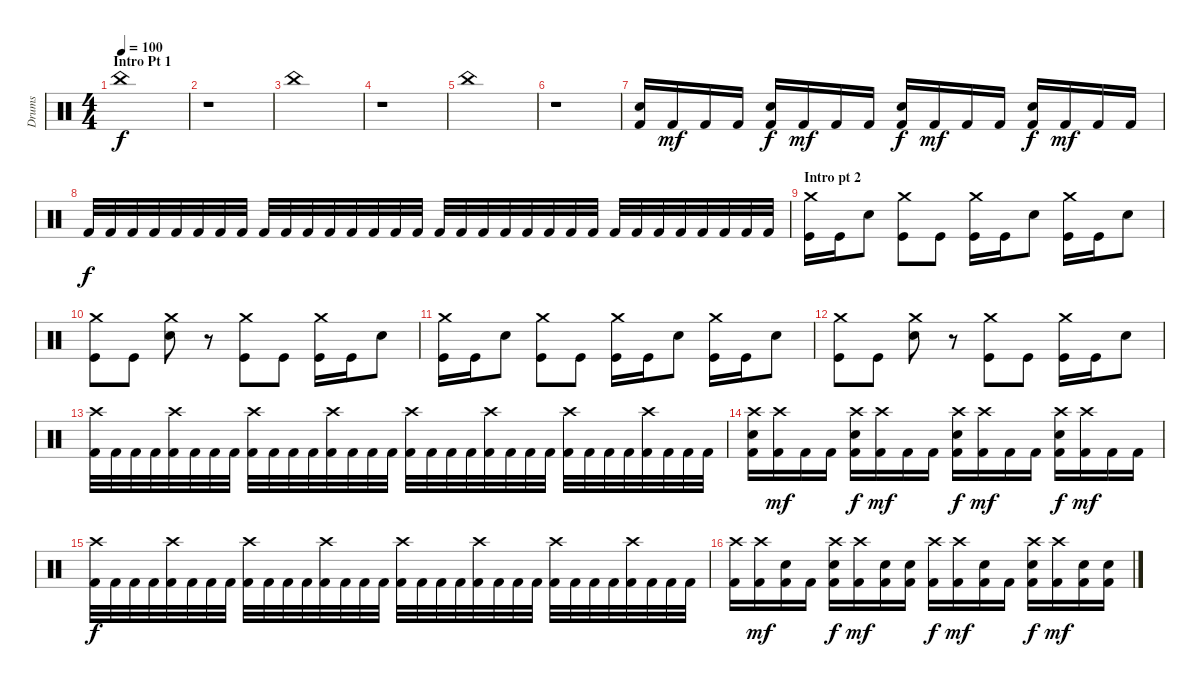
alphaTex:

\track ("Drums" "Drums") {instrument percussion}
\staff {score}
\articulation defaults
\ts (4 4)
\section ("" "Intro Pt 1")
\tempo 100
\clef neutral
\ks c "China (hit)".1{dy f}
|
r.1 |
"China (hit)".1 |
r.1 |
"China (hit)".1 |
r.1 |
("Electric Snare (hit)" "Kick (hit) 2").16 "Kick (hit) 2".16{dy mf} "Kick (hit) 2".16 "Kick (hit) 2".16 ("Electric Snare (hit)" "Kick (hit) 2").16{dy f} "Kick (hit) 2".16{dy mf} "Kick (hit) 2".16 "Kick (hit) 2".16 ("Electric Snare (hit)" "Kick (hit) 2").16{dy f} "Kick (hit) 2".16{dy mf} "Kick (hit) 2".16 "Kick (hit) 2".16 ("Electric Snare (hit)" "Kick (hit) 2").16{dy f} "Kick (hit) 2".16{dy mf} "Kick (hit) 2".16 "Kick (hit) 2".16 |
"Kick (hit) 2".32{dy f} "Kick (hit) 2".32 "Kick (hit) 2".32 "Kick (hit) 2".32 "Kick (hit) 2".32 "Kick (hit) 2".32 "Kick (hit) 2".32 "Kick (hit) 2".32 "Kick (hit) 2".32 "Kick (hit) 2".32 "Kick (hit) 2".32 "Kick (hit) 2".32 "Kick (hit) 2".32 "Kick (hit) 2".32 "Kick (hit) 2".32 "Kick (hit) 2".32 "Kick (hit) 2".32 "Kick (hit) 2".32 "Kick (hit) 2".32 "Kick (hit) 2".32 "Kick (hit) 2".32 "Kick (hit) 2".32 "Kick (hit) 2".32 "Kick (hit) 2".32 "Kick (hit) 2".32 "Kick (hit) 2".32 "Kick (hit) 2".32 "Kick (hit) 2".32 "Kick (hit) 2".32 "Kick (hit) 2".32 "Kick (hit) 2".32 "Kick (hit) 2".32 |
\section ("" "Intro pt 2")
("Crash medium (hit)" "Kick (hit)").16 "Kick (hit)".16 "Electric Snare (hit)".8 ("Crash medium (hit)" "Kick (hit)").8 "Kick (hit)".8 ("Crash medium (hit)" "Kick (hit)").16 "Kick (hit)".16 "Electric Snare (hit)".8 ("Crash medium (hit)" "Kick (hit)").16 "Kick (hit)".16 "Electric Snare (hit)".8 |
("Crash medium (hit)" "Kick (hit)").8 "Kick (hit)".8 ("Crash medium (hit)" "Electric Snare (hit)").8 r.8 ("Crash medium (hit)" "Kick (hit)").8 "Kick (hit)".8 ("Crash medium (hit)" "Kick (hit)").16 "Kick (hit)".16 "Electric Snare (hit)".8 |
("Crash medium (hit)" "Kick (hit)").16 "Kick (hit)".16 "Electric Snare (hit)".8 ("Crash medium (hit)" "Kick (hit)").8 "Kick (hit)".8 ("Crash medium (hit)" "Kick (hit)").16 "Kick (hit)".16 "Electric Snare (hit)".8 ("Crash medium (hit)" "Kick (hit)").16 "Kick (hit)".16 "Electric Snare (hit)".8 |
("Crash medium (hit)" "Kick (hit)").8 "Kick (hit)".8 ("Crash medium (hit)" "Electric Snare (hit)").8 r.8 ("Crash medium (hit)" "Kick (hit)").8 "Kick (hit)".8 ("Crash medium (hit)" "Kick (hit)").16 "Kick (hit)".16 "Electric Snare (hit)".8 |
("Crash high (hit)" "Kick (hit) 2").32 "Kick (hit) 2".32 "Kick (hit) 2".32 "Kick (hit) 2".32 ("Crash high (hit)" "Kick (hit) 2").32 "Kick (hit) 2".32 "Kick (hit) 2".32 "Kick (hit) 2".32 ("Crash high (hit)" "Kick (hit) 2").32 "Kick (hit) 2".32 "Kick (hit) 2".32 "Kick (hit) 2".32 ("Crash high (hit)" "Kick (hit) 2").32 "Kick (hit) 2".32 "Kick (hit) 2".32 "Kick (hit) 2".32 ("Crash high (hit)" "Kick (hit) 2").32 "Kick (hit) 2".32 "Kick (hit) 2".32 "Kick (hit) 2".32 ("Crash high (hit)" "Kick (hit) 2").32 "Kick (hit) 2".32 "Kick (hit) 2".32 "Kick (hit) 2".32 ("Crash high (hit)" "Kick (hit) 2").32 "Kick (hit) 2".32 "Kick (hit) 2".32 "Kick (hit) 2".32 ("Crash high (hit)" "Kick (hit) 2").32 "Kick (hit) 2".32 "Kick (hit) 2".32 "Kick (hit) 2".32 |
("Crash high (hit)" "Electric Snare (hit)" "Kick (hit) 2").16 ("Crash high (hit)" "Kick (hit) 2").16{dy mf} "Kick (hit) 2".16 "Kick (hit) 2".16 ("Crash high (hit)" "Electric Snare (hit)" "Kick (hit) 2").16{dy f} ("Crash high (hit)" "Kick (hit) 2").16{dy mf} "Kick (hit) 2".16 "Kick (hit) 2".16 ("Crash high (hit)" "Electric Snare (hit)" "Kick (hit) 2").16{dy f} ("Crash high (hit)" "Kick (hit) 2").16{dy mf} "Kick (hit) 2".16 "Kick (hit) 2".16 ("Crash high (hit)" "Electric Snare (hit)" "Kick (hit) 2").16{dy f} ("Crash high (hit)" "Kick (hit) 2").16{dy mf} "Kick (hit) 2".16 "Kick (hit) 2".16 |
("Crash high (hit)" "Kick (hit) 2").32{dy f} "Kick (hit) 2".32 "Kick (hit) 2".32 "Kick (hit) 2".32 ("Crash high (hit)" "Kick (hit) 2").32 "Kick (hit) 2".32 "Kick (hit) 2".32 "Kick (hit) 2".32 ("Crash high (hit)" "Kick (hit) 2").32 "Kick (hit) 2".32 "Kick (hit) 2".32 "Kick (hit) 2".32 ("Crash high (hit)" "Kick (hit) 2").32 "Kick (hit) 2".32 "Kick (hit) 2".32 "Kick (hit) 2".32 ("Crash high (hit)" "Kick (hit) 2").32 "Kick (hit) 2".32 "Kick (hit) 2".32 "Kick (hit) 2".32 ("Crash high (hit)" "Kick (hit) 2").32 "Kick (hit) 2".32 "Kick (hit) 2".32 "Kick (hit) 2".32 ("Crash high (hit)" "Kick (hit) 2").32 "Kick (hit) 2".32 "Kick (hit) 2".32 "Kick (hit) 2".32 ("Crash high (hit)" "Kick (hit) 2").32 "Kick (hit) 2".32 "Kick (hit) 2".32 "Kick (hit) 2".32 |
("Crash high (hit)" "Kick (hit) 2").16 ("Crash high (hit)" "Kick (hit) 2").16{dy mf} ("Electric Snare (hit)" "Kick (hit) 2").16 "Kick (hit) 2".16 ("Crash high (hit)" "Electric Snare (hit)" "Kick (hit) 2").16{dy f} ("Crash high (hit)" "Kick (hit) 2").16{dy mf} ("Electric Snare (hit)" "Kick (hit) 2").16 ("Electric Snare (hit)" "Kick (hit) 2").16 ("Crash high (hit)" "Kick (hit) 2").16{dy f} ("Crash high (hit)" "Kick (hit) 2").16{dy mf} ("Electric Snare (hit)" "Kick (hit) 2").16 "Kick (hit) 2".16 ("Crash high (hit)" "Electric Snare (hit)" "Kick (hit) 2").16{dy f} ("Crash high (hit)" "Kick (hit) 2").16{dy mf} ("Electric Snare (hit)" "Kick (hit) 2").16 ("Electric Snare (hit)" "Kick (hit) 2").16
